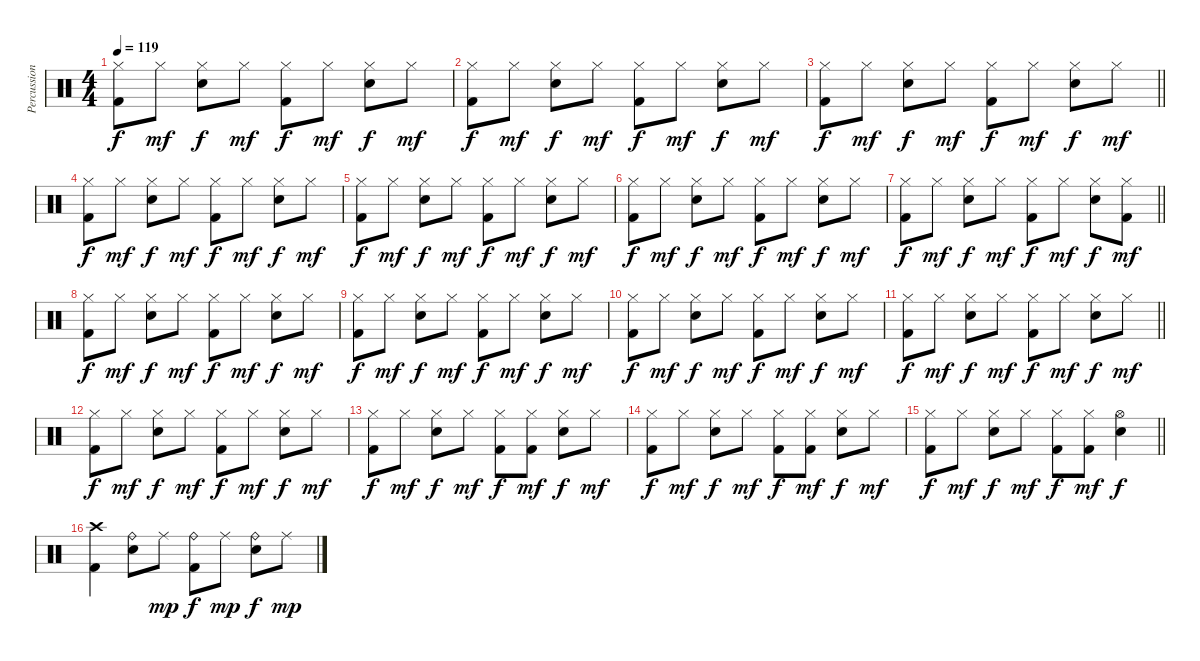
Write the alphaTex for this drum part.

\track ("Percussion" "Percussion") {instrument percussion}
\staff {score}
\articulation defaults
\ts (4 4)
\tempo 119
\clef neutral
\ks c
("Hi-Hat (closed)" "Kick (hit) 2").8{dy f} "Hi-Hat (closed)".8{dy mf} ("Hi-Hat (closed)" "Snare (hit) 2").8{dy f} "Hi-Hat (closed)".8{dy mf} ("Hi-Hat (closed)" "Kick (hit) 2").8{dy f} "Hi-Hat (closed)".8{dy mf} ("Hi-Hat (closed)" "Snare (hit) 2").8{dy f} "Hi-Hat (closed)".8{dy mf} |
("Hi-Hat (closed)" "Kick (hit) 2").8{dy f} "Hi-Hat (closed)".8{dy mf} ("Hi-Hat (closed)" "Snare (hit) 2").8{dy f} "Hi-Hat (closed)".8{dy mf} ("Hi-Hat (closed)" "Kick (hit) 2").8{dy f} "Hi-Hat (closed)".8{dy mf} ("Hi-Hat (closed)" "Snare (hit) 2").8{dy f} "Hi-Hat (closed)".8{dy mf} |
\barLineRight lightlight
("Hi-Hat (closed)" "Kick (hit) 2").8{dy f} "Hi-Hat (closed)".8{dy mf} ("Hi-Hat (closed)" "Snare (hit) 2").8{dy f} "Hi-Hat (closed)".8{dy mf} ("Hi-Hat (closed)" "Kick (hit) 2").8{dy f} "Hi-Hat (closed)".8{dy mf} ("Hi-Hat (closed)" "Snare (hit) 2").8{dy f} "Hi-Hat (closed)".8{dy mf} |
("Hi-Hat (closed)" "Kick (hit) 2").8{dy f} "Hi-Hat (closed)".8{dy mf} ("Hi-Hat (closed)" "Snare (hit) 2").8{dy f} "Hi-Hat (closed)".8{dy mf} ("Hi-Hat (closed)" "Kick (hit) 2").8{dy f} "Hi-Hat (closed)".8{dy mf} ("Hi-Hat (closed)" "Snare (hit) 2").8{dy f} "Hi-Hat (closed)".8{dy mf} |
("Hi-Hat (closed)" "Kick (hit) 2").8{dy f} "Hi-Hat (closed)".8{dy mf} ("Hi-Hat (closed)" "Snare (hit) 2").8{dy f} "Hi-Hat (closed)".8{dy mf} ("Hi-Hat (closed)" "Kick (hit) 2").8{dy f} "Hi-Hat (closed)".8{dy mf} ("Hi-Hat (closed)" "Snare (hit) 2").8{dy f} "Hi-Hat (closed)".8{dy mf} |
("Hi-Hat (closed)" "Kick (hit) 2").8{dy f} "Hi-Hat (closed)".8{dy mf} ("Hi-Hat (closed)" "Snare (hit) 2").8{dy f} "Hi-Hat (closed)".8{dy mf} ("Hi-Hat (closed)" "Kick (hit) 2").8{dy f} "Hi-Hat (closed)".8{dy mf} ("Hi-Hat (closed)" "Snare (hit) 2").8{dy f} "Hi-Hat (closed)".8{dy mf} |
\barLineRight lightlight
("Hi-Hat (closed)" "Kick (hit) 2").8{dy f} "Hi-Hat (closed)".8{dy mf} ("Hi-Hat (closed)" "Snare (hit) 2").8{dy f} "Hi-Hat (closed)".8{dy mf} ("Hi-Hat (closed)" "Kick (hit) 2").8{dy f} "Hi-Hat (closed)".8{dy mf} ("Hi-Hat (closed)" "Snare (hit) 2").8{dy f} ("Hi-Hat (closed)" "Kick (hit) 2").8{dy mf} |
("Hi-Hat (closed)" "Kick (hit) 2").8{dy f} "Hi-Hat (closed)".8{dy mf} ("Hi-Hat (closed)" "Snare (hit) 2").8{dy f} "Hi-Hat (closed)".8{dy mf} ("Hi-Hat (closed)" "Kick (hit) 2").8{dy f} "Hi-Hat (closed)".8{dy mf} ("Hi-Hat (closed)" "Snare (hit) 2").8{dy f} "Hi-Hat (closed)".8{dy mf} |
("Hi-Hat (closed)" "Kick (hit) 2").8{dy f} "Hi-Hat (closed)".8{dy mf} ("Hi-Hat (closed)" "Snare (hit) 2").8{dy f} "Hi-Hat (closed)".8{dy mf} ("Hi-Hat (closed)" "Kick (hit) 2").8{dy f} "Hi-Hat (closed)".8{dy mf} ("Hi-Hat (closed)" "Snare (hit) 2").8{dy f} "Hi-Hat (closed)".8{dy mf} |
("Hi-Hat (closed)" "Kick (hit) 2").8{dy f} "Hi-Hat (closed)".8{dy mf} ("Hi-Hat (closed)" "Snare (hit) 2").8{dy f} "Hi-Hat (closed)".8{dy mf} ("Hi-Hat (closed)" "Kick (hit) 2").8{dy f} "Hi-Hat (closed)".8{dy mf} ("Hi-Hat (closed)" "Snare (hit) 2").8{dy f} "Hi-Hat (closed)".8{dy mf} |
\barLineRight lightlight
("Hi-Hat (closed)" "Kick (hit) 2").8{dy f} "Hi-Hat (closed)".8{dy mf} ("Hi-Hat (closed)" "Snare (hit) 2").8{dy f} "Hi-Hat (closed)".8{dy mf} ("Hi-Hat (closed)" "Kick (hit) 2").8{dy f} "Hi-Hat (closed)".8{dy mf} ("Hi-Hat (closed)" "Snare (hit) 2").8{dy f} "Hi-Hat (closed)".8{dy mf} |
("Hi-Hat (closed)" "Kick (hit) 2").8{dy f} "Hi-Hat (closed)".8{dy mf} ("Hi-Hat (closed)" "Snare (hit) 2").8{dy f} "Hi-Hat (closed)".8{dy mf} ("Hi-Hat (closed)" "Kick (hit) 2").8{dy f} "Hi-Hat (closed)".8{dy mf} ("Hi-Hat (closed)" "Snare (hit) 2").8{dy f} "Hi-Hat (closed)".8{dy mf} |
("Hi-Hat (closed)" "Kick (hit) 2").8{dy f} "Hi-Hat (closed)".8{dy mf} ("Hi-Hat (closed)" "Snare (hit) 2").8{dy f} "Hi-Hat (closed)".8{dy mf} ("Hi-Hat (closed)" "Kick (hit) 2").8{dy f} ("Hi-Hat (closed)" "Kick (hit) 2").8{dy mf} ("Hi-Hat (closed)" "Snare (hit) 2").8{dy f} "Hi-Hat (closed)".8{dy mf} |
("Hi-Hat (closed)" "Kick (hit) 2").8{dy f} "Hi-Hat (closed)".8{dy mf} ("Hi-Hat (closed)" "Snare (hit) 2").8{dy f} "Hi-Hat (closed)".8{dy mf} ("Hi-Hat (closed)" "Kick (hit) 2").8{dy f} ("Hi-Hat (closed)" "Kick (hit) 2").8{dy mf} ("Hi-Hat (closed)" "Snare (hit) 2").8{dy f} "Hi-Hat (closed)".8{dy mf} |
\barLineRight lightlight
("Hi-Hat (closed)" "Kick (hit) 2").8{dy f} "Hi-Hat (closed)".8{dy mf} ("Hi-Hat (closed)" "Snare (hit) 2").8{dy f} "Hi-Hat (closed)".8{dy mf} ("Hi-Hat (closed)" "Kick (hit) 2").8{dy f} ("Hi-Hat (closed)" "Kick (hit) 2").8{dy mf} ("Hi-Hat (open)" "Snare (hit) 2").4{dy f} |
("Crash high (hit)" "Kick (hit) 2").4 ("Ride (bell)" "Snare (hit) 2").8 "Ride (middle)".8{dy mp} ("Ride (bell)" "Kick (hit) 2").8{dy f} "Ride (middle)".8{dy mp} ("Ride (bell)" "Snare (hit) 2").8{dy f} "Ride (middle)".8{dy mp}
